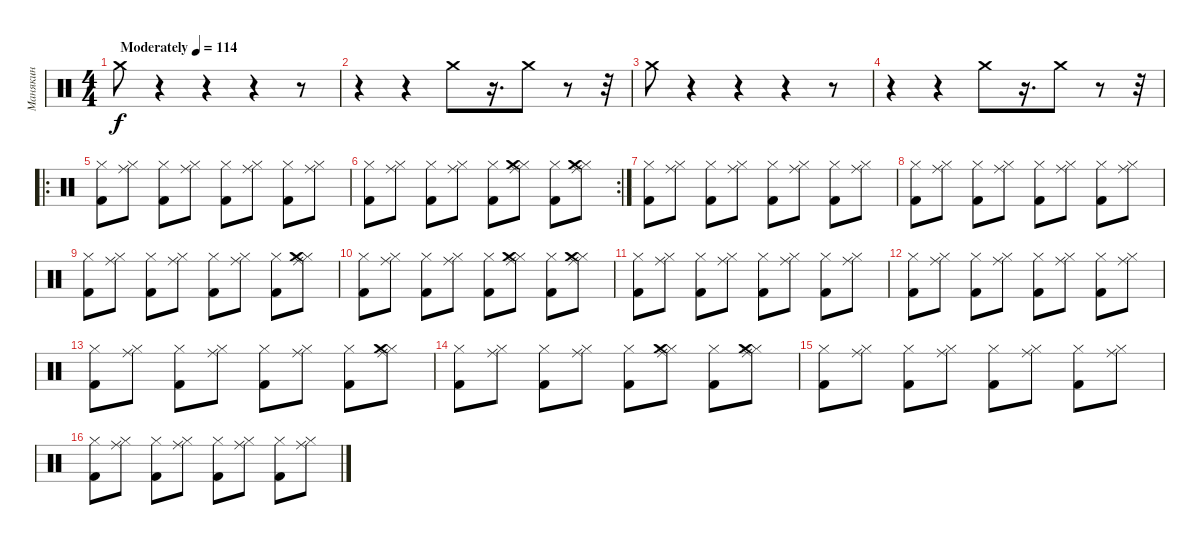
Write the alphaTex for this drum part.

\track ("Манякин" "Манякин") {instrument percussion}
\staff {score}
\articulation defaults
\ts (4 4)
\tempo (114 "Moderately")
\clef neutral
\ks c "Crash medium (hit)".8{dy f}
r.4 r.4 r.4 r.8 |
r.4 r.4 "Crash medium (hit)".8 r.16{d} "Crash medium (hit)".8 r.8 r.32 |
"Crash medium (hit)".8 r.4 r.4 r.4 r.8 |
r.4 r.4 "Crash medium (hit)".8 r.16{d} "Crash medium (hit)".8 r.8 r.32 |
\ro
("Kick (hit) 2" "Hi-Hat (closed)").8 ("Hi-Hat (closed)" "Ride (middle)").8 ("Kick (hit) 2" "Hi-Hat (closed)").8 ("Hi-Hat (closed)" "Ride (middle)").8 ("Kick (hit) 2" "Hi-Hat (closed)").8 ("Hi-Hat (closed)" "Ride (middle)").8 ("Kick (hit) 2" "Hi-Hat (closed)").8 ("Hi-Hat (closed)" "Ride (middle)").8 |
\rc 2
("Kick (hit) 2" "Hi-Hat (closed)").8 ("Hi-Hat (closed)" "Ride (middle)").8 ("Kick (hit) 2" "Hi-Hat (closed)").8 ("Hi-Hat (closed)" "Ride (middle)").8 ("Kick (hit) 2" "Hi-Hat (closed)").8 ("Hi-Hat (closed)" "Ride (middle)" "Crash medium (hit)").8 ("Kick (hit) 2" "Hi-Hat (closed)").8 ("Hi-Hat (closed)" "Ride (middle)" "Crash medium (hit)").8 |
("Kick (hit) 2" "Hi-Hat (closed)").8 ("Hi-Hat (closed)" "Ride (middle)").8 ("Kick (hit) 2" "Hi-Hat (closed)").8 ("Hi-Hat (closed)" "Ride (middle)").8 ("Kick (hit) 2" "Hi-Hat (closed)").8 ("Hi-Hat (closed)" "Ride (middle)").8 ("Kick (hit) 2" "Hi-Hat (closed)").8 ("Hi-Hat (closed)" "Ride (middle)").8 |
("Kick (hit) 2" "Hi-Hat (closed)").8 ("Hi-Hat (closed)" "Ride (middle)").8 ("Kick (hit) 2" "Hi-Hat (closed)").8 ("Hi-Hat (closed)" "Ride (middle)").8 ("Kick (hit) 2" "Hi-Hat (closed)").8 ("Hi-Hat (closed)" "Ride (middle)").8 ("Kick (hit) 2" "Hi-Hat (closed)").8 ("Hi-Hat (closed)" "Ride (middle)").8 |
("Kick (hit) 2" "Hi-Hat (closed)").8 ("Hi-Hat (closed)" "Ride (middle)").8 ("Kick (hit) 2" "Hi-Hat (closed)").8 ("Hi-Hat (closed)" "Ride (middle)").8 ("Kick (hit) 2" "Hi-Hat (closed)").8 ("Hi-Hat (closed)" "Ride (middle)").8 ("Kick (hit) 2" "Hi-Hat (closed)").8 ("Hi-Hat (closed)" "Ride (middle)" "Crash medium (hit)").8 |
("Kick (hit) 2" "Hi-Hat (closed)").8 ("Hi-Hat (closed)" "Ride (middle)").8 ("Kick (hit) 2" "Hi-Hat (closed)").8 ("Hi-Hat (closed)" "Ride (middle)").8 ("Kick (hit) 2" "Hi-Hat (closed)").8 ("Hi-Hat (closed)" "Ride (middle)" "Crash medium (hit)").8 ("Kick (hit) 2" "Hi-Hat (closed)").8 ("Hi-Hat (closed)" "Ride (middle)" "Crash medium (hit)").8 |
("Kick (hit) 2" "Hi-Hat (closed)").8 ("Hi-Hat (closed)" "Ride (middle)").8 ("Kick (hit) 2" "Hi-Hat (closed)").8 ("Hi-Hat (closed)" "Ride (middle)").8 ("Kick (hit) 2" "Hi-Hat (closed)").8 ("Hi-Hat (closed)" "Ride (middle)").8 ("Kick (hit) 2" "Hi-Hat (closed)").8 ("Hi-Hat (closed)" "Ride (middle)").8 |
("Kick (hit) 2" "Hi-Hat (closed)").8 ("Hi-Hat (closed)" "Ride (middle)").8 ("Kick (hit) 2" "Hi-Hat (closed)").8 ("Hi-Hat (closed)" "Ride (middle)").8 ("Kick (hit) 2" "Hi-Hat (closed)").8 ("Hi-Hat (closed)" "Ride (middle)").8 ("Kick (hit) 2" "Hi-Hat (closed)").8 ("Hi-Hat (closed)" "Ride (middle)").8 |
("Kick (hit) 2" "Hi-Hat (closed)").8 ("Hi-Hat (closed)" "Ride (middle)").8 ("Kick (hit) 2" "Hi-Hat (closed)").8 ("Hi-Hat (closed)" "Ride (middle)").8 ("Kick (hit) 2" "Hi-Hat (closed)").8 ("Hi-Hat (closed)" "Ride (middle)").8 ("Kick (hit) 2" "Hi-Hat (closed)").8 ("Hi-Hat (closed)" "Ride (middle)" "Crash medium (hit)").8 |
("Kick (hit) 2" "Hi-Hat (closed)").8 ("Hi-Hat (closed)" "Ride (middle)").8 ("Kick (hit) 2" "Hi-Hat (closed)").8 ("Hi-Hat (closed)" "Ride (middle)").8 ("Kick (hit) 2" "Hi-Hat (closed)").8 ("Hi-Hat (closed)" "Ride (middle)" "Crash medium (hit)").8 ("Kick (hit) 2" "Hi-Hat (closed)").8 ("Hi-Hat (closed)" "Ride (middle)" "Crash medium (hit)").8 |
("Kick (hit) 2" "Hi-Hat (closed)").8 ("Hi-Hat (closed)" "Ride (middle)").8 ("Kick (hit) 2" "Hi-Hat (closed)").8 ("Hi-Hat (closed)" "Ride (middle)").8 ("Kick (hit) 2" "Hi-Hat (closed)").8 ("Hi-Hat (closed)" "Ride (middle)").8 ("Kick (hit) 2" "Hi-Hat (closed)").8 ("Hi-Hat (closed)" "Ride (middle)").8 |
("Kick (hit) 2" "Hi-Hat (closed)").8 ("Hi-Hat (closed)" "Ride (middle)").8 ("Kick (hit) 2" "Hi-Hat (closed)").8 ("Hi-Hat (closed)" "Ride (middle)").8 ("Kick (hit) 2" "Hi-Hat (closed)").8 ("Hi-Hat (closed)" "Ride (middle)").8 ("Kick (hit) 2" "Hi-Hat (closed)").8 ("Hi-Hat (closed)" "Ride (middle)").8
